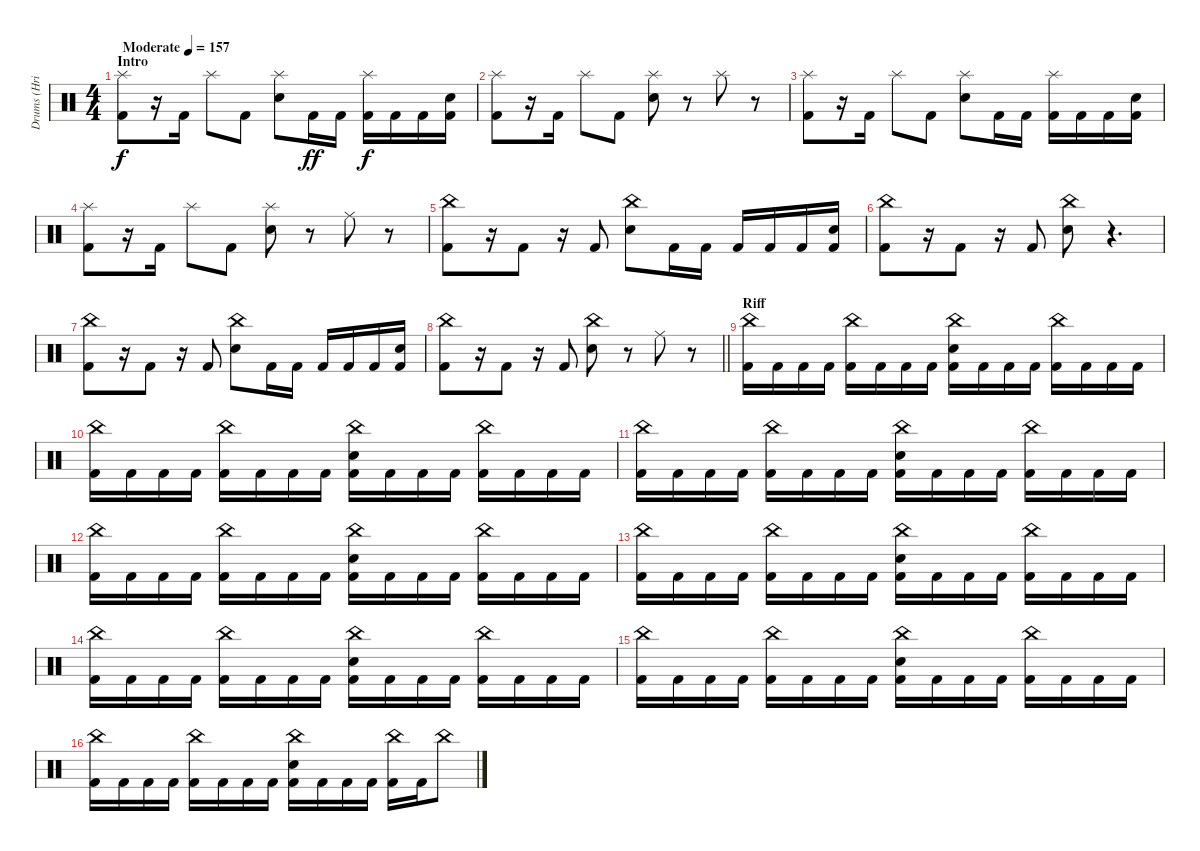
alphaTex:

\track ("Drums (Hriso)" "Drums (Hri") {instrument percussion}
\staff {score}
\articulation defaults
\ts (4 4)
\section ("" "Intro")
\tempo (157 "Moderate")
\clef neutral
\ks c
("Splash (hit)" "Kick (hit) 2").8{dy f} r.16 "Kick (hit) 2".16 "Splash (hit)".8 "Kick (hit) 2".8 ("Snare (hit) 2" "Splash (hit)").8 "Kick (hit) 2".16{dy ff} "Kick (hit) 2".16 ("Splash (hit)" "Kick (hit) 2").16{dy f} "Kick (hit) 2".16 "Kick (hit) 2".16 ("Snare (hit) 2" "Kick (hit) 2").16 |
("Kick (hit) 2" "Splash (hit)").8 r.16 "Kick (hit) 2".16 "Splash (hit)".8 "Kick (hit) 2".8 ("Splash (hit)" "Snare (hit) 2").8 r.8 "Splash (hit)".8 r.8 |
("Splash (hit)" "Kick (hit) 2").8 r.16 "Kick (hit) 2".16 "Splash (hit)".8 "Kick (hit) 2".8 ("Snare (hit) 2" "Splash (hit)").8 "Kick (hit) 2".16 "Kick (hit) 2".16 ("Splash (hit)" "Kick (hit) 2").16 "Kick (hit) 2".16 "Kick (hit) 2".16 ("Snare (hit) 2" "Kick (hit) 2").16 |
("Kick (hit) 2" "Splash (hit)").8 r.16 "Kick (hit) 2".16 "Splash (hit)".8 "Kick (hit) 2".8 ("Splash (hit)" "Snare (hit) 2").8 r.8 "Ride (middle)".8 r.8 |
("Kick (hit) 2" "China (hit)").8 r.16 "Kick (hit) 2".8 r.16 "Kick (hit) 2".8 ("Snare (hit) 2" "China (hit)").8 "Kick (hit) 2".16 "Kick (hit) 2".16 "Kick (hit) 2".16 "Kick (hit) 2".16 "Kick (hit) 2".16 ("Kick (hit) 2" "Snare (hit) 2").16 |
("Kick (hit) 2" "China (hit)").8 r.16 "Kick (hit) 2".8 r.16 "Kick (hit) 2".8 ("Snare (hit) 2" "China (hit)").8 r.4{d} |
("Kick (hit) 2" "China (hit)").8 r.16 "Kick (hit) 2".8 r.16 "Kick (hit) 2".8 ("Snare (hit) 2" "China (hit)").8 "Kick (hit) 2".16 "Kick (hit) 2".16 "Kick (hit) 2".16 "Kick (hit) 2".16 "Kick (hit) 2".16 ("Kick (hit) 2" "Snare (hit) 2").16 |
\barLineRight lightlight
("Kick (hit) 2" "China (hit)").8 r.16 "Kick (hit) 2".8 r.16 "Kick (hit) 2".8 ("Snare (hit) 2" "China (hit)").8 r.8 "Ride (middle)".8 r.8 |
\section ("" "Riff")
("China (hit)" "Kick (hit) 2").16 "Kick (hit) 2".16 "Kick (hit) 2".16 "Kick (hit) 2".16 ("China (hit)" "Kick (hit) 2").16 "Kick (hit) 2".16 "Kick (hit) 2".16 "Kick (hit) 2".16 ("Snare (hit) 2" "China (hit)" "Kick (hit) 2").16 "Kick (hit) 2".16 "Kick (hit) 2".16 "Kick (hit) 2".16 ("China (hit)" "Kick (hit) 2").16 "Kick (hit) 2".16 "Kick (hit) 2".16 "Kick (hit) 2".16 |
("China (hit)" "Kick (hit) 2").16 "Kick (hit) 2".16 "Kick (hit) 2".16 "Kick (hit) 2".16 ("China (hit)" "Kick (hit) 2").16 "Kick (hit) 2".16 "Kick (hit) 2".16 "Kick (hit) 2".16 ("Snare (hit) 2" "China (hit)" "Kick (hit) 2").16 "Kick (hit) 2".16 "Kick (hit) 2".16 "Kick (hit) 2".16 ("China (hit)" "Kick (hit) 2").16 "Kick (hit) 2".16 "Kick (hit) 2".16 "Kick (hit) 2".16 |
("China (hit)" "Kick (hit) 2").16 "Kick (hit) 2".16 "Kick (hit) 2".16 "Kick (hit) 2".16 ("China (hit)" "Kick (hit) 2").16 "Kick (hit) 2".16 "Kick (hit) 2".16 "Kick (hit) 2".16 ("Snare (hit) 2" "China (hit)" "Kick (hit) 2").16 "Kick (hit) 2".16 "Kick (hit) 2".16 "Kick (hit) 2".16 ("China (hit)" "Kick (hit) 2").16 "Kick (hit) 2".16 "Kick (hit) 2".16 "Kick (hit) 2".16 |
("China (hit)" "Kick (hit) 2").16 "Kick (hit) 2".16 "Kick (hit) 2".16 "Kick (hit) 2".16 ("China (hit)" "Kick (hit) 2").16 "Kick (hit) 2".16 "Kick (hit) 2".16 "Kick (hit) 2".16 ("Snare (hit) 2" "China (hit)" "Kick (hit) 2").16 "Kick (hit) 2".16 "Kick (hit) 2".16 "Kick (hit) 2".16 ("China (hit)" "Kick (hit) 2").16 "Kick (hit) 2".16 "Kick (hit) 2".16 "Kick (hit) 2".16 |
("China (hit)" "Kick (hit) 2").16 "Kick (hit) 2".16 "Kick (hit) 2".16 "Kick (hit) 2".16 ("China (hit)" "Kick (hit) 2").16 "Kick (hit) 2".16 "Kick (hit) 2".16 "Kick (hit) 2".16 ("Snare (hit) 2" "China (hit)" "Kick (hit) 2").16 "Kick (hit) 2".16 "Kick (hit) 2".16 "Kick (hit) 2".16 ("China (hit)" "Kick (hit) 2").16 "Kick (hit) 2".16 "Kick (hit) 2".16 "Kick (hit) 2".16 |
("China (hit)" "Kick (hit) 2").16 "Kick (hit) 2".16 "Kick (hit) 2".16 "Kick (hit) 2".16 ("China (hit)" "Kick (hit) 2").16 "Kick (hit) 2".16 "Kick (hit) 2".16 "Kick (hit) 2".16 ("Snare (hit) 2" "China (hit)" "Kick (hit) 2").16 "Kick (hit) 2".16 "Kick (hit) 2".16 "Kick (hit) 2".16 ("China (hit)" "Kick (hit) 2").16 "Kick (hit) 2".16 "Kick (hit) 2".16 "Kick (hit) 2".16 |
("China (hit)" "Kick (hit) 2").16 "Kick (hit) 2".16 "Kick (hit) 2".16 "Kick (hit) 2".16 ("China (hit)" "Kick (hit) 2").16 "Kick (hit) 2".16 "Kick (hit) 2".16 "Kick (hit) 2".16 ("Snare (hit) 2" "China (hit)" "Kick (hit) 2").16 "Kick (hit) 2".16 "Kick (hit) 2".16 "Kick (hit) 2".16 ("China (hit)" "Kick (hit) 2").16 "Kick (hit) 2".16 "Kick (hit) 2".16 "Kick (hit) 2".16 |
("China (hit)" "Kick (hit) 2").16 "Kick (hit) 2".16 "Kick (hit) 2".16 "Kick (hit) 2".16 ("China (hit)" "Kick (hit) 2").16 "Kick (hit) 2".16 "Kick (hit) 2".16 "Kick (hit) 2".16 ("Snare (hit) 2" "China (hit)" "Kick (hit) 2").16 "Kick (hit) 2".16 "Kick (hit) 2".16 "Kick (hit) 2".16 ("China (hit)" "Kick (hit) 2").16 "Kick (hit) 2".16 "China (hit)".8
